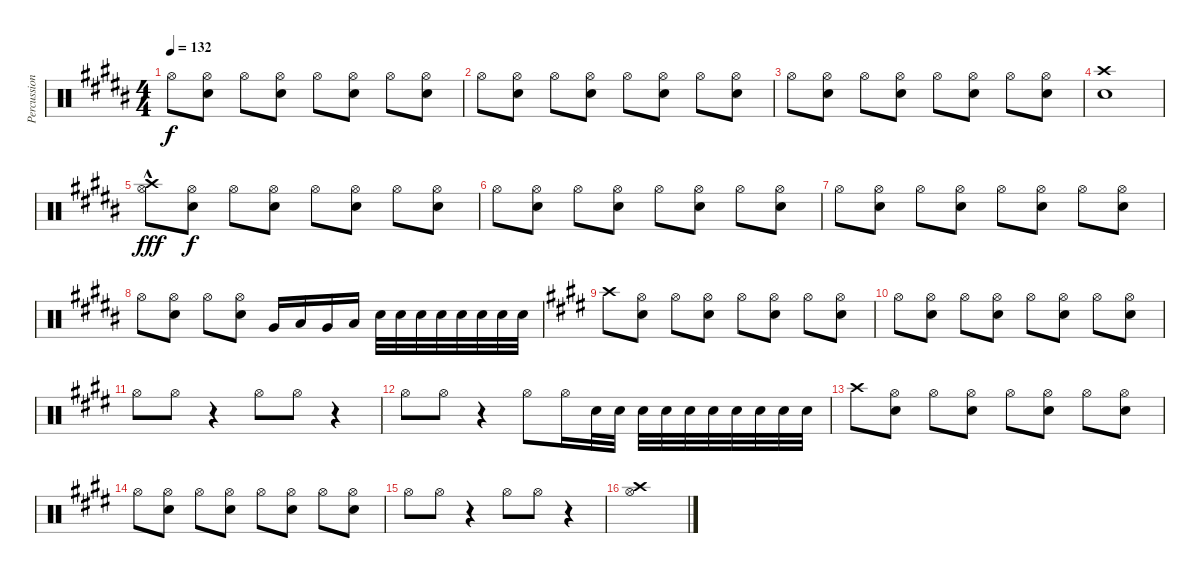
\track ("Percussion (Gelnn Porter)" "Percussion") {instrument percussion}
\staff {score}
\articulation defaults
\ts (4 4)
\tempo 132
\clef neutral
\ks b "Hi-Hat (open)".8{dy f}
("Hi-Hat (open)" "Snare (hit) 2").8 "Hi-Hat (open)".8 ("Hi-Hat (open)" "Snare (hit) 2").8 "Hi-Hat (open)".8 ("Hi-Hat (open)" "Snare (hit) 2").8 "Hi-Hat (open)".8 ("Hi-Hat (open)" "Snare (hit) 2").8 |
"Hi-Hat (open)".8 ("Hi-Hat (open)" "Snare (hit) 2").8 "Hi-Hat (open)".8 ("Hi-Hat (open)" "Snare (hit) 2").8 "Hi-Hat (open)".8 ("Hi-Hat (open)" "Snare (hit) 2").8 "Hi-Hat (open)".8 ("Hi-Hat (open)" "Snare (hit) 2").8 |
"Hi-Hat (open)".8 ("Hi-Hat (open)" "Snare (hit) 2").8 "Hi-Hat (open)".8 ("Hi-Hat (open)" "Snare (hit) 2").8 "Hi-Hat (open)".8 ("Hi-Hat (open)" "Snare (hit) 2").8 "Hi-Hat (open)".8 ("Hi-Hat (open)" "Snare (hit) 2").8 |
("Crash high (hit)" "Snare (hit) 2").1 |
("Crash high (hit)"{hac} "Hi-Hat (open)").8{dy fff} ("Hi-Hat (open)" "Snare (hit) 2").8{dy f} "Hi-Hat (open)".8 ("Hi-Hat (open)" "Snare (hit) 2").8 "Hi-Hat (open)".8 ("Hi-Hat (open)" "Snare (hit) 2").8 "Hi-Hat (open)".8 ("Hi-Hat (open)" "Snare (hit) 2").8 |
"Hi-Hat (open)".8 ("Hi-Hat (open)" "Snare (hit) 2").8 "Hi-Hat (open)".8 ("Hi-Hat (open)" "Snare (hit) 2").8 "Hi-Hat (open)".8 ("Hi-Hat (open)" "Snare (hit) 2").8 "Hi-Hat (open)".8 ("Hi-Hat (open)" "Snare (hit) 2").8 |
"Hi-Hat (open)".8 ("Hi-Hat (open)" "Snare (hit) 2").8 "Hi-Hat (open)".8 ("Hi-Hat (open)" "Snare (hit) 2").8 "Hi-Hat (open)".8 ("Hi-Hat (open)" "Snare (hit) 2").8 "Hi-Hat (open)".8 ("Hi-Hat (open)" "Snare (hit) 2").8 |
"Hi-Hat (open)".8 ("Hi-Hat (open)" "Snare (hit) 2").8 "Hi-Hat (open)".8 ("Hi-Hat (open)" "Snare (hit) 2").8 "Very Low Tom (hit)".16 "Low Tom (hit)".16 "Very Low Tom (hit)".16 "Low Tom (hit)".16 "Snare (hit) 2".32 "Snare (hit) 2".32 "Snare (hit) 2".32 "Snare (hit) 2".32 "Snare (hit) 2".32 "Snare (hit) 2".32 "Snare (hit) 2".32 "Snare (hit) 2".32 |
\ks c#minor "Crash high (hit)".8
("Hi-Hat (open)" "Snare (hit) 2").8 "Hi-Hat (open)".8 ("Hi-Hat (open)" "Snare (hit) 2").8 "Hi-Hat (open)".8 ("Hi-Hat (open)" "Snare (hit) 2").8 "Hi-Hat (open)".8 ("Hi-Hat (open)" "Snare (hit) 2").8 |
"Hi-Hat (open)".8 ("Hi-Hat (open)" "Snare (hit) 2").8 "Hi-Hat (open)".8 ("Hi-Hat (open)" "Snare (hit) 2").8 "Hi-Hat (open)".8 ("Hi-Hat (open)" "Snare (hit) 2").8 "Hi-Hat (open)".8 ("Hi-Hat (open)" "Snare (hit) 2").8 |
"Hi-Hat (open)".8 "Hi-Hat (open)".8 r.4 "Hi-Hat (open)".8 "Hi-Hat (open)".8 r.4 |
"Hi-Hat (open)".8 "Hi-Hat (open)".8 r.4 "Hi-Hat (open)".8 "Hi-Hat (open)".16 "Snare (hit) 2".32 "Snare (hit) 2".32 "Snare (hit) 2".32 "Snare (hit) 2".32 "Snare (hit) 2".32 "Snare (hit) 2".32 "Snare (hit) 2".32 "Snare (hit) 2".32 "Snare (hit) 2".32 "Snare (hit) 2".32 |
"Crash high (hit)".8 ("Hi-Hat (open)" "Snare (hit) 2").8 "Hi-Hat (open)".8 ("Hi-Hat (open)" "Snare (hit) 2").8 "Hi-Hat (open)".8 ("Hi-Hat (open)" "Snare (hit) 2").8 "Hi-Hat (open)".8 ("Hi-Hat (open)" "Snare (hit) 2").8 |
"Hi-Hat (open)".8 ("Hi-Hat (open)" "Snare (hit) 2").8 "Hi-Hat (open)".8 ("Hi-Hat (open)" "Snare (hit) 2").8 "Hi-Hat (open)".8 ("Hi-Hat (open)" "Snare (hit) 2").8 "Hi-Hat (open)".8 ("Hi-Hat (open)" "Snare (hit) 2").8 |
"Hi-Hat (open)".8 "Hi-Hat (open)".8 r.4 "Hi-Hat (open)".8 "Hi-Hat (open)".8 r.4 |
("Crash high (hit)" "Hi-Hat (open)").1
